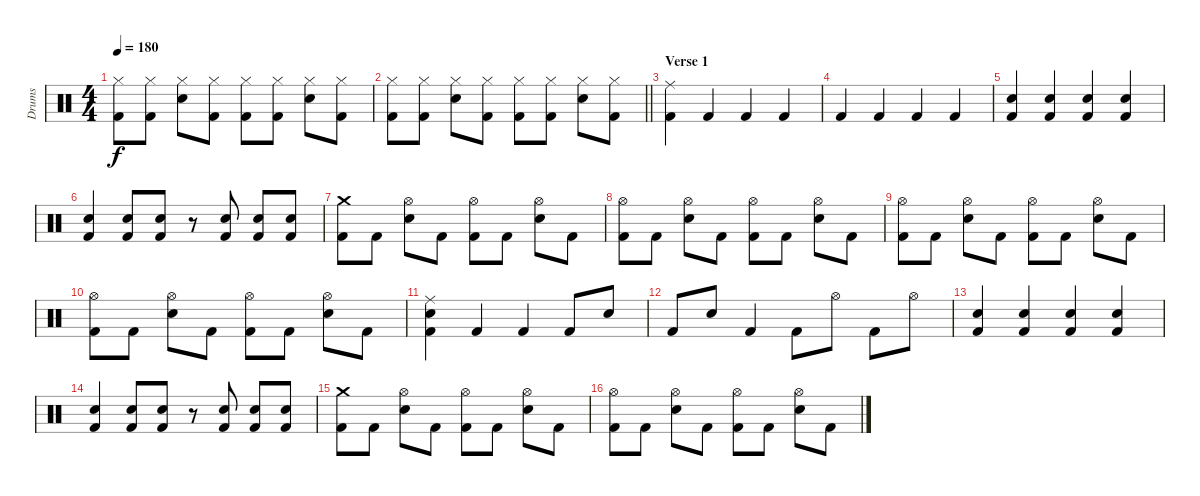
\track ("Drums" "Drums") {instrument percussion}
\staff {score}
\articulation defaults
\ts (4 4)
\tempo 180
\clef neutral
\ks c
("Hi-Hat (closed)" "Kick (hit) 2").8{dy f} ("Hi-Hat (closed)" "Kick (hit) 2").8 ("Hi-Hat (closed)" "Electric Snare (hit)").8 ("Hi-Hat (closed)" "Kick (hit) 2").8 ("Hi-Hat (closed)" "Kick (hit) 2").8 ("Hi-Hat (closed)" "Kick (hit) 2").8 ("Hi-Hat (closed)" "Electric Snare (hit)").8 ("Hi-Hat (closed)" "Kick (hit) 2").8 |
\barLineRight lightlight
("Hi-Hat (closed)" "Kick (hit) 2").8 ("Hi-Hat (closed)" "Kick (hit) 2").8 ("Hi-Hat (closed)" "Electric Snare (hit)").8 ("Hi-Hat (closed)" "Kick (hit) 2").8 ("Hi-Hat (closed)" "Kick (hit) 2").8 ("Hi-Hat (closed)" "Kick (hit) 2").8 ("Hi-Hat (closed)" "Electric Snare (hit)").8 ("Hi-Hat (closed)" "Kick (hit) 2").8 |
\section ("" "Verse 1")
("Ride (middle)" "Kick (hit) 2").4 "Kick (hit) 2".4 "Kick (hit) 2".4 "Kick (hit) 2".4 |
"Kick (hit) 2".4 "Kick (hit) 2".4 "Kick (hit) 2".4 "Kick (hit) 2".4 |
("Electric Snare (hit)" "Kick (hit) 2").4 ("Electric Snare (hit)" "Kick (hit) 2").4 ("Electric Snare (hit)" "Kick (hit) 2").4 ("Electric Snare (hit)" "Kick (hit) 2").4 |
("Electric Snare (hit)" "Kick (hit) 2").4 ("Electric Snare (hit)" "Kick (hit) 2").8 ("Electric Snare (hit)" "Kick (hit) 2").8 r.8 ("Electric Snare (hit)" "Kick (hit) 2").8 ("Electric Snare (hit)" "Kick (hit) 2").8 ("Electric Snare (hit)" "Kick (hit) 2").8 |
("Crash medium (hit)" "Kick (hit) 2").8 "Kick (hit) 2".8 ("Hi-Hat (open)" "Electric Snare (hit)").8 "Kick (hit) 2".8 ("Hi-Hat (open)" "Kick (hit) 2").8 "Kick (hit) 2".8 ("Hi-Hat (open)" "Electric Snare (hit)").8 "Kick (hit) 2".8 |
("Hi-Hat (open)" "Kick (hit) 2").8 "Kick (hit) 2".8 ("Hi-Hat (open)" "Electric Snare (hit)").8 "Kick (hit) 2".8 ("Hi-Hat (open)" "Kick (hit) 2").8 "Kick (hit) 2".8 ("Hi-Hat (open)" "Electric Snare (hit)").8 "Kick (hit) 2".8 |
("Hi-Hat (open)" "Kick (hit) 2").8 "Kick (hit) 2".8 ("Hi-Hat (open)" "Electric Snare (hit)").8 "Kick (hit) 2".8 ("Hi-Hat (open)" "Kick (hit) 2").8 "Kick (hit) 2".8 ("Hi-Hat (open)" "Electric Snare (hit)").8 "Kick (hit) 2".8 |
("Hi-Hat (open)" "Kick (hit) 2").8 "Kick (hit) 2".8 ("Hi-Hat (open)" "Electric Snare (hit)").8 "Kick (hit) 2".8 ("Hi-Hat (open)" "Kick (hit) 2").8 "Kick (hit) 2".8 ("Hi-Hat (open)" "Electric Snare (hit)").8 "Kick (hit) 2".8 |
("Ride (middle)" "Electric Snare (hit)" "Kick (hit) 2").4 "Kick (hit) 2".4 "Kick (hit) 2".4 "Kick (hit) 2".8 "Electric Snare (hit)".8 |
"Kick (hit) 2".8 "Electric Snare (hit)".8 "Kick (hit) 2".4 "Kick (hit) 2".8 "Hi-Hat (open)".8 "Kick (hit) 2".8 "Hi-Hat (open)".8 |
("Electric Snare (hit)" "Kick (hit) 2").4 ("Electric Snare (hit)" "Kick (hit) 2").4 ("Electric Snare (hit)" "Kick (hit) 2").4 ("Electric Snare (hit)" "Kick (hit) 2").4 |
("Electric Snare (hit)" "Kick (hit) 2").4 ("Electric Snare (hit)" "Kick (hit) 2").8 ("Electric Snare (hit)" "Kick (hit) 2").8 r.8 ("Electric Snare (hit)" "Kick (hit) 2").8 ("Electric Snare (hit)" "Kick (hit) 2").8 ("Electric Snare (hit)" "Kick (hit) 2").8 |
("Crash medium (hit)" "Kick (hit) 2").8 "Kick (hit) 2".8 ("Hi-Hat (open)" "Electric Snare (hit)").8 "Kick (hit) 2".8 ("Hi-Hat (open)" "Kick (hit) 2").8 "Kick (hit) 2".8 ("Hi-Hat (open)" "Electric Snare (hit)").8 "Kick (hit) 2".8 |
("Hi-Hat (open)" "Kick (hit) 2").8 "Kick (hit) 2".8 ("Hi-Hat (open)" "Electric Snare (hit)").8 "Kick (hit) 2".8 ("Hi-Hat (open)" "Kick (hit) 2").8 "Kick (hit) 2".8 ("Hi-Hat (open)" "Electric Snare (hit)").8 "Kick (hit) 2".8
